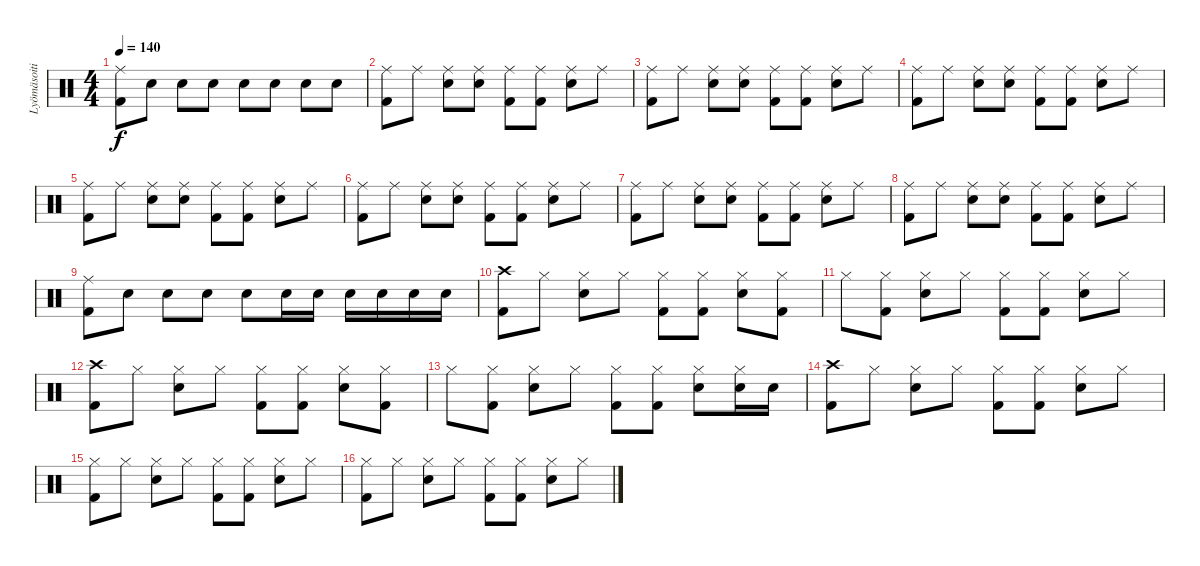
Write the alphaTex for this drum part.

\track ("Lyömäsoitin" "Lyömäsoiti") {instrument percussion}
\staff {score}
\articulation defaults
\ts (4 4)
\tempo 140
\clef neutral
\ks c
("Ride (middle)" "Kick (hit) 2").8{dy f} "Electric Snare (hit)".8 "Electric Snare (hit)".8 "Electric Snare (hit)".8 "Electric Snare (hit)".8 "Electric Snare (hit)".8 "Electric Snare (hit)".8 "Electric Snare (hit)".8 |
("Ride (middle)" "Kick (hit) 2").8 "Ride (middle)".8 ("Ride (middle)" "Electric Snare (hit)").8 ("Ride (middle)" "Electric Snare (hit)").8 ("Ride (middle)" "Kick (hit) 2").8 ("Ride (middle)" "Kick (hit) 2").8 ("Ride (middle)" "Electric Snare (hit)").8 "Ride (middle)".8 |
("Ride (middle)" "Kick (hit) 2").8 "Ride (middle)".8 ("Ride (middle)" "Electric Snare (hit)").8 ("Ride (middle)" "Electric Snare (hit)").8 ("Ride (middle)" "Kick (hit) 2").8 ("Ride (middle)" "Kick (hit) 2").8 ("Ride (middle)" "Electric Snare (hit)").8 "Ride (middle)".8 |
("Ride (middle)" "Kick (hit) 2").8 "Ride (middle)".8 ("Ride (middle)" "Electric Snare (hit)").8 ("Ride (middle)" "Electric Snare (hit)").8 ("Ride (middle)" "Kick (hit) 2").8 ("Ride (middle)" "Kick (hit) 2").8 ("Ride (middle)" "Electric Snare (hit)").8 "Ride (middle)".8 |
("Ride (middle)" "Kick (hit) 2").8 "Ride (middle)".8 ("Ride (middle)" "Electric Snare (hit)").8 ("Ride (middle)" "Electric Snare (hit)").8 ("Ride (middle)" "Kick (hit) 2").8 ("Ride (middle)" "Kick (hit) 2").8 ("Ride (middle)" "Electric Snare (hit)").8 "Ride (middle)".8 |
("Ride (middle)" "Kick (hit) 2").8 "Ride (middle)".8 ("Ride (middle)" "Electric Snare (hit)").8 ("Ride (middle)" "Electric Snare (hit)").8 ("Ride (middle)" "Kick (hit) 2").8 ("Ride (middle)" "Kick (hit) 2").8 ("Ride (middle)" "Electric Snare (hit)").8 "Ride (middle)".8 |
("Ride (middle)" "Kick (hit) 2").8 "Ride (middle)".8 ("Ride (middle)" "Electric Snare (hit)").8 ("Ride (middle)" "Electric Snare (hit)").8 ("Ride (middle)" "Kick (hit) 2").8 ("Ride (middle)" "Kick (hit) 2").8 ("Ride (middle)" "Electric Snare (hit)").8 "Ride (middle)".8 |
("Ride (middle)" "Kick (hit) 2").8 "Ride (middle)".8 ("Ride (middle)" "Electric Snare (hit)").8 ("Ride (middle)" "Electric Snare (hit)").8 ("Ride (middle)" "Kick (hit) 2").8 ("Ride (middle)" "Kick (hit) 2").8 ("Ride (middle)" "Electric Snare (hit)").8 "Ride (middle)".8 |
("Ride (middle)" "Kick (hit) 2").8 "Electric Snare (hit)".8 "Electric Snare (hit)".8 "Electric Snare (hit)".8 "Electric Snare (hit)".8 "Electric Snare (hit)".16 "Electric Snare (hit)".16 "Electric Snare (hit)".16 "Electric Snare (hit)".16 "Electric Snare (hit)".16 "Electric Snare (hit)".16 |
("Crash high (hit)" "Kick (hit) 2").8 "Hi-Hat (closed)".8 ("Hi-Hat (closed)" "Electric Snare (hit)").8 "Hi-Hat (closed)".8 ("Hi-Hat (closed)" "Kick (hit) 2").8 ("Hi-Hat (closed)" "Kick (hit) 2").8 ("Hi-Hat (closed)" "Electric Snare (hit)").8 ("Hi-Hat (closed)" "Kick (hit) 2").8 |
"Hi-Hat (closed)".8 ("Hi-Hat (closed)" "Kick (hit) 2").8 ("Hi-Hat (closed)" "Electric Snare (hit)").8 "Hi-Hat (closed)".8 ("Hi-Hat (closed)" "Kick (hit) 2").8 ("Hi-Hat (closed)" "Kick (hit) 2").8 ("Hi-Hat (closed)" "Electric Snare (hit)").8 "Hi-Hat (closed)".8 |
("Crash high (hit)" "Kick (hit) 2").8 "Hi-Hat (closed)".8 ("Hi-Hat (closed)" "Electric Snare (hit)").8 "Hi-Hat (closed)".8 ("Hi-Hat (closed)" "Kick (hit) 2").8 ("Hi-Hat (closed)" "Kick (hit) 2").8 ("Hi-Hat (closed)" "Electric Snare (hit)").8 ("Hi-Hat (closed)" "Kick (hit) 2").8 |
"Hi-Hat (closed)".8 ("Hi-Hat (closed)" "Kick (hit) 2").8 ("Hi-Hat (closed)" "Electric Snare (hit)").8 "Hi-Hat (closed)".8 ("Hi-Hat (closed)" "Kick (hit) 2").8 ("Hi-Hat (closed)" "Kick (hit) 2").8 ("Hi-Hat (closed)" "Electric Snare (hit)").8 ("Hi-Hat (closed)" "Electric Snare (hit)").16 "Electric Snare (hit)".16 |
("Crash high (hit)" "Kick (hit) 2").8 "Hi-Hat (closed)".8 ("Hi-Hat (closed)" "Electric Snare (hit)").8 "Hi-Hat (closed)".8 ("Hi-Hat (closed)" "Kick (hit) 2").8 ("Hi-Hat (closed)" "Kick (hit) 2").8 ("Hi-Hat (closed)" "Electric Snare (hit)").8 "Hi-Hat (closed)".8 |
("Hi-Hat (closed)" "Kick (hit) 2").8 "Hi-Hat (closed)".8 ("Hi-Hat (closed)" "Electric Snare (hit)").8 "Hi-Hat (closed)".8 ("Hi-Hat (closed)" "Kick (hit) 2").8 ("Hi-Hat (closed)" "Kick (hit) 2").8 ("Hi-Hat (closed)" "Electric Snare (hit)").8 "Hi-Hat (closed)".8 |
("Hi-Hat (closed)" "Kick (hit) 2").8 "Hi-Hat (closed)".8 ("Hi-Hat (closed)" "Electric Snare (hit)").8 "Hi-Hat (closed)".8 ("Hi-Hat (closed)" "Kick (hit) 2").8 ("Hi-Hat (closed)" "Kick (hit) 2").8 ("Hi-Hat (closed)" "Electric Snare (hit)").8 "Hi-Hat (closed)".8
